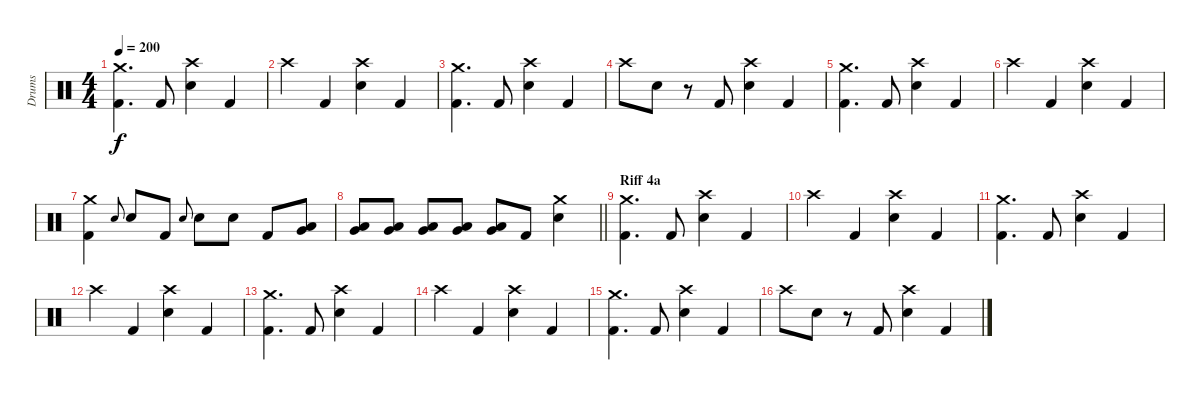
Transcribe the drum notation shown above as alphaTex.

\track ("Drums" "Drums") {instrument percussion}
\staff {score}
\articulation defaults
\ts (4 4)
\tempo 200
\clef neutral
\ks c
("Crash medium (hit)" "Kick (hit) 2").4{d dy f} "Kick (hit) 2".8 ("Crash high (hit)" "Electric Snare (hit)").4 "Kick (hit) 2".4 |
"Crash high (hit)".4 "Kick (hit) 2".4 ("Crash high (hit)" "Electric Snare (hit)").4 "Kick (hit) 2".4 |
("Crash medium (hit)" "Kick (hit) 2").4{d} "Kick (hit) 2".8 ("Crash high (hit)" "Electric Snare (hit)").4 "Kick (hit) 2".4 |
"Crash high (hit)".8 "Electric Snare (hit)".8 r.8 "Kick (hit) 2".8 ("Crash high (hit)" "Electric Snare (hit)").4 "Kick (hit) 2".4 |
("Crash medium (hit)" "Kick (hit) 2").4{d} "Kick (hit) 2".8 ("Crash high (hit)" "Electric Snare (hit)").4 "Kick (hit) 2".4 |
"Crash high (hit)".4 "Kick (hit) 2".4 ("Crash high (hit)" "Electric Snare (hit)").4 "Kick (hit) 2".4 |
("Kick (hit) 2" "Crash medium (hit)").4 "Electric Snare (hit)".8{gr onbeat} "Electric Snare (hit)".8 "Kick (hit) 2".8 "Electric Snare (hit)".8{gr onbeat} "Electric Snare (hit)".8 "Electric Snare (hit)".8 "Kick (hit) 2".8 ("Low Tom (hit)" "Very Low Tom (hit)").8 |
\barLineRight lightlight
("Low Tom (hit)" "Very Low Tom (hit)").8 ("Low Tom (hit)" "Very Low Tom (hit)").8 ("Low Tom (hit)" "Very Low Tom (hit)").8 ("Low Tom (hit)" "Very Low Tom (hit)").8 ("Low Tom (hit)" "Very Low Tom (hit)").8 "Kick (hit) 2".8 ("Crash medium (hit)" "Electric Snare (hit)").4 |
\section ("" "Riff 4a")
("Crash medium (hit)" "Kick (hit) 2").4{d} "Kick (hit) 2".8 ("Crash high (hit)" "Electric Snare (hit)").4 "Kick (hit) 2".4 |
"Crash high (hit)".4 "Kick (hit) 2".4 ("Crash high (hit)" "Electric Snare (hit)").4 "Kick (hit) 2".4 |
("Crash medium (hit)" "Kick (hit) 2").4{d} "Kick (hit) 2".8 ("Crash high (hit)" "Electric Snare (hit)").4 "Kick (hit) 2".4 |
"Crash high (hit)".4 "Kick (hit) 2".4 ("Crash high (hit)" "Electric Snare (hit)").4 "Kick (hit) 2".4 |
("Crash medium (hit)" "Kick (hit) 2").4{d} "Kick (hit) 2".8 ("Crash high (hit)" "Electric Snare (hit)").4 "Kick (hit) 2".4 |
"Crash high (hit)".4 "Kick (hit) 2".4 ("Crash high (hit)" "Electric Snare (hit)").4 "Kick (hit) 2".4 |
("Crash medium (hit)" "Kick (hit) 2").4{d} "Kick (hit) 2".8 ("Crash high (hit)" "Electric Snare (hit)").4 "Kick (hit) 2".4 |
"Crash high (hit)".8 "Electric Snare (hit)".8 r.8 "Kick (hit) 2".8 ("Crash high (hit)" "Electric Snare (hit)").4 "Kick (hit) 2".4
